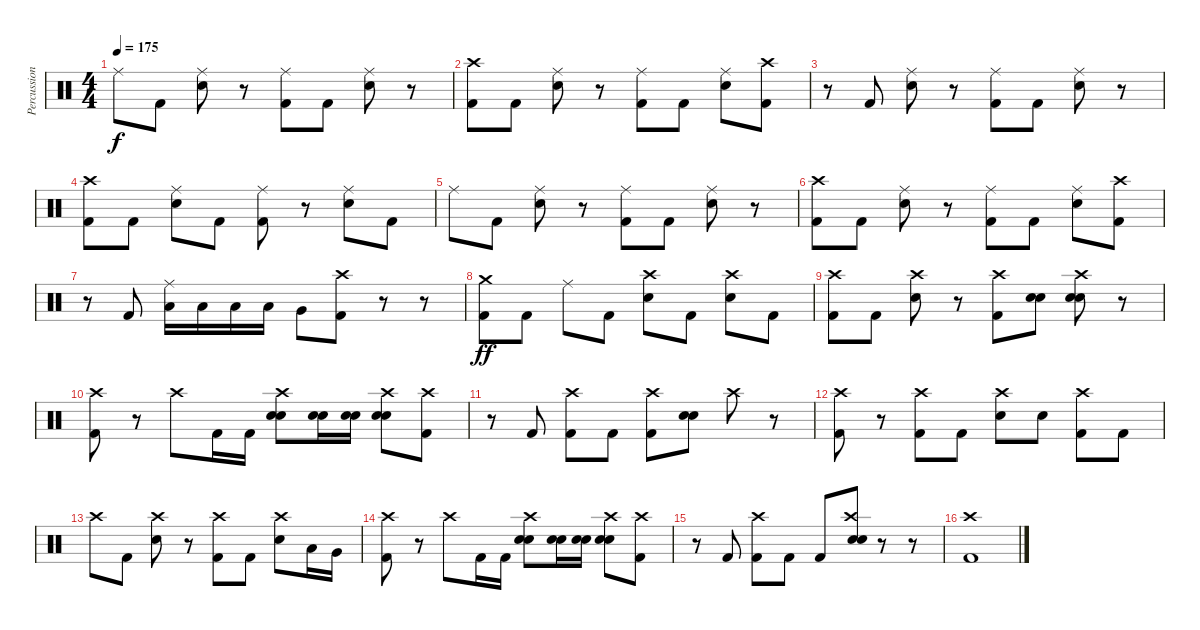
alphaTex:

\track ("Percussion" "Percussion") {instrument percussion}
\staff {score}
\articulation defaults
\ts (4 4)
\tempo 175
\clef neutral
\ks c "Ride (middle)".8{dy f} "Kick (hit) 2".8
("Ride (middle)" "Snare (hit) 2").8 r.8 ("Ride (middle)" "Kick (hit) 2").8 "Kick (hit) 2".8 ("Ride (middle)" "Snare (hit) 2").8 r.8 |
("Crash high (hit)" "Kick (hit) 2").8 "Kick (hit) 2".8 ("Ride (middle)" "Snare (hit) 2").8 r.8 ("Ride (middle)" "Kick (hit) 2").8 "Kick (hit) 2".8 ("Ride (middle)" "Snare (hit) 2").8 ("Crash high (hit)" "Kick (hit) 2").8 |
r.8 "Kick (hit) 2".8 ("Ride (middle)" "Snare (hit) 2").8 r.8 ("Ride (middle)" "Kick (hit) 2").8 "Kick (hit) 2".8 ("Ride (middle)" "Snare (hit) 2").8 r.8 |
("Crash high (hit)" "Kick (hit) 2").8 "Kick (hit) 2".8 ("Ride (middle)" "Snare (hit) 2").8 "Kick (hit) 2".8 ("Ride (middle)" "Kick (hit) 2").8 r.8 ("Ride (middle)" "Snare (hit) 2").8 "Kick (hit) 2".8 |
"Ride (middle)".8 "Kick (hit) 2".8 ("Ride (middle)" "Snare (hit) 2").8 r.8 ("Ride (middle)" "Kick (hit) 2").8 "Kick (hit) 2".8 ("Ride (middle)" "Snare (hit) 2").8 r.8 |
("Crash high (hit)" "Kick (hit) 2").8 "Kick (hit) 2".8 ("Ride (middle)" "Snare (hit) 2").8 r.8 ("Ride (middle)" "Kick (hit) 2").8 "Kick (hit) 2".8 ("Ride (middle)" "Snare (hit) 2").8 ("Crash high (hit)" "Kick (hit) 2").8 |
r.8 "Kick (hit) 2".8 ("Ride (middle)" "Low Tom (hit)").16 "Low Tom (hit)".16 "Low Tom (hit)".16 "Low Tom (hit)".16 "Very Low Tom (hit)".8 ("Crash high (hit)" "Kick (hit) 2").8 r.8 r.8 |
("Crash medium (hit)" "Kick (hit) 2").8{dy ff} "Kick (hit) 2".8 "Ride (middle)".8 "Kick (hit) 2".8 ("Crash high (hit)" "Snare (hit) 2").8 "Kick (hit) 2".8 ("Crash high (hit)" "Snare (hit) 2").8 "Kick (hit) 2".8 |
("Crash high (hit)" "Kick (hit) 2").8 "Kick (hit) 2".8 ("Crash high (hit)" "Snare (hit) 2").8 r.8 ("Crash high (hit)" "Kick (hit) 2").8 ("Snare (hit) 2" "Electric Snare (hit)").8 ("Crash high (hit)" "Snare (hit) 2" "Electric Snare (hit)").8 r.8 |
("Crash high (hit)" "Kick (hit) 2").8 r.8 "Crash high (hit)".8 "Kick (hit) 2".16 "Kick (hit) 2".16 ("Crash high (hit)" "Snare (hit) 2" "Electric Snare (hit)").8 ("Snare (hit) 2" "Electric Snare (hit)").16 ("Snare (hit) 2" "Electric Snare (hit)").16 ("Crash high (hit)" "Snare (hit) 2" "Electric Snare (hit)").8 ("Crash high (hit)" "Kick (hit) 2").8 |
r.8 "Kick (hit) 2".8 ("Crash high (hit)" "Kick (hit) 2").8 "Kick (hit) 2".8 ("Crash high (hit)" "Kick (hit) 2").8 ("Snare (hit) 2" "Electric Snare (hit)").8 "Crash high (hit)".8 r.8 |
("Crash high (hit)" "Kick (hit) 2").8 r.8 ("Crash high (hit)" "Kick (hit) 2").8 "Kick (hit) 2".8 ("Crash high (hit)" "Snare (hit) 2").8 "Snare (hit) 2".8 ("Crash high (hit)" "Kick (hit) 2").8 "Kick (hit) 2".8 |
"Crash high (hit)".8 "Kick (hit) 2".8 ("Crash high (hit)" "Snare (hit) 2").8 r.8 ("Crash high (hit)" "Kick (hit) 2").8 "Kick (hit) 2".8 ("Crash high (hit)" "Snare (hit) 2").8 "Low Tom (hit)".16 "Very Low Tom (hit)".16 |
("Crash high (hit)" "Kick (hit) 2").8 r.8 "Crash high (hit)".8 "Kick (hit) 2".16 "Kick (hit) 2".16 ("Crash high (hit)" "Snare (hit) 2" "Electric Snare (hit)").8 ("Snare (hit) 2" "Electric Snare (hit)").16 ("Snare (hit) 2" "Electric Snare (hit)").16 ("Crash high (hit)" "Snare (hit) 2" "Electric Snare (hit)").8 ("Crash high (hit)" "Kick (hit) 2").8 |
r.8 "Kick (hit) 2".8 ("Crash high (hit)" "Kick (hit) 2").8 "Kick (hit) 2".8 "Kick (hit) 2".8 ("Crash high (hit)" "Snare (hit) 2" "Electric Snare (hit)").8 r.8 r.8 |
("Crash high (hit)" "Kick (hit) 2").1
